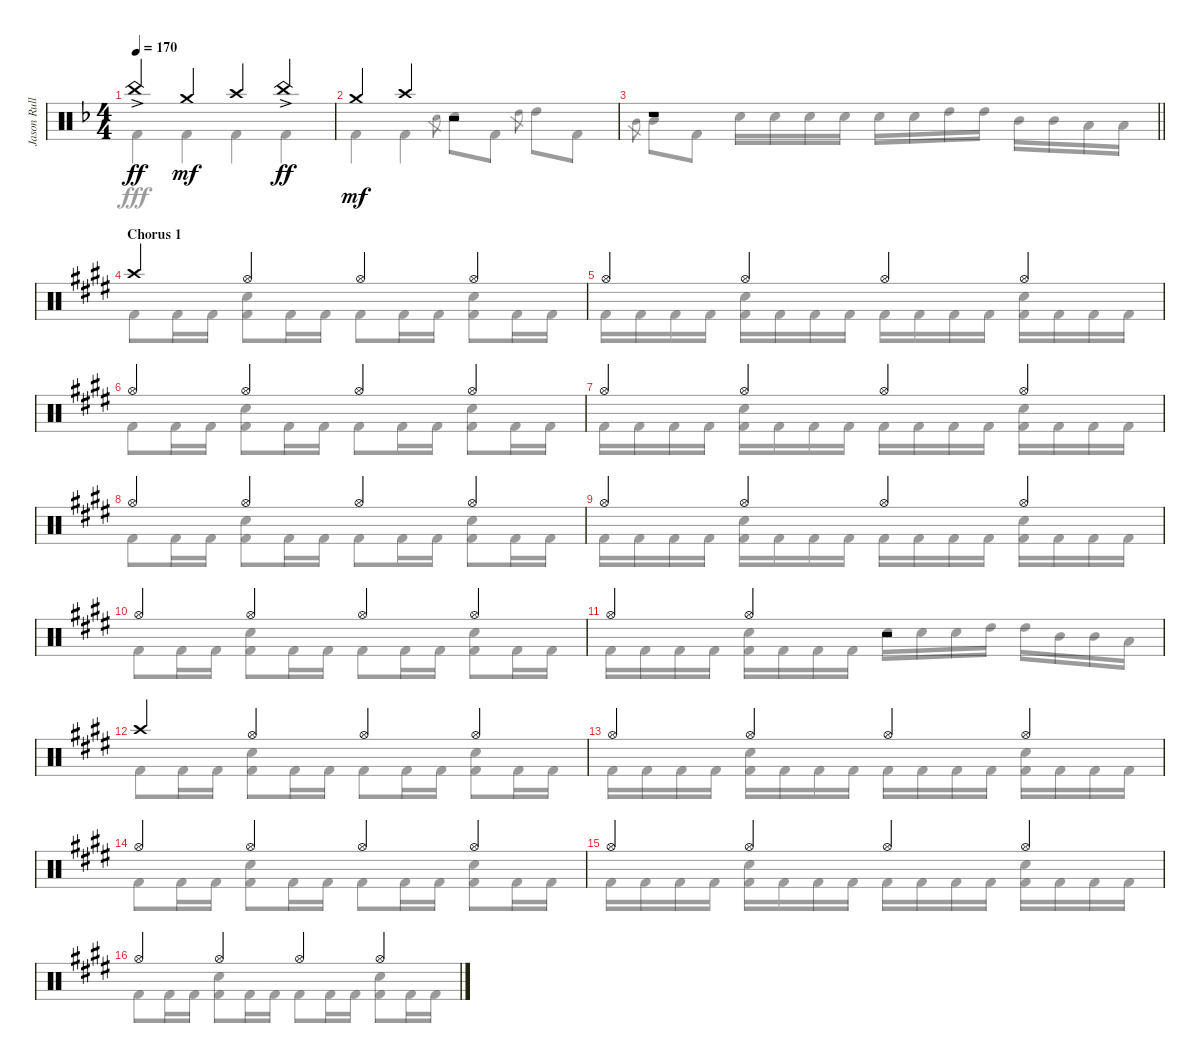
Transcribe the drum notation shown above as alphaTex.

\track ("Jason Rullo Drums" "Jason Rull") {instrument percussion}
\staff {score}
\articulation defaults
\voice
\ts (4 4)
\tempo 170
\clef neutral
\ks dminor "China (hit)"{ac}.4{dy ff} "Crash medium (hit)".4{dy mf} "Crash high (hit)".4 "China (hit)"{ac}.4{dy ff}
|
"Crash medium (hit)".4{dy mf} "Crash high (hit)".4 r.2 |
\barLineRight lightlight
r.1 |
\section ("" "Chorus 1")
\ks c#minor "Crash high (hit)".4 "Hi-Hat (open)".4 "Hi-Hat (open)".4 "Hi-Hat (open)".4
|
"Hi-Hat (open)".4 "Hi-Hat (open)".4 "Hi-Hat (open)".4 "Hi-Hat (open)".4 |
"Hi-Hat (open)".4 "Hi-Hat (open)".4 "Hi-Hat (open)".4 "Hi-Hat (open)".4 |
"Hi-Hat (open)".4 "Hi-Hat (open)".4 "Hi-Hat (open)".4 "Hi-Hat (open)".4 |
"Hi-Hat (open)".4 "Hi-Hat (open)".4 "Hi-Hat (open)".4 "Hi-Hat (open)".4 |
"Hi-Hat (open)".4 "Hi-Hat (open)".4 "Hi-Hat (open)".4 "Hi-Hat (open)".4 |
"Hi-Hat (open)".4 "Hi-Hat (open)".4 "Hi-Hat (open)".4 "Hi-Hat (open)".4 |
"Hi-Hat (open)".4 "Hi-Hat (open)".4 r.2 |
"Crash high (hit)".4 "Hi-Hat (open)".4 "Hi-Hat (open)".4 "Hi-Hat (open)".4 |
"Hi-Hat (open)".4 "Hi-Hat (open)".4 "Hi-Hat (open)".4 "Hi-Hat (open)".4 |
"Hi-Hat (open)".4 "Hi-Hat (open)".4 "Hi-Hat (open)".4 "Hi-Hat (open)".4 |
"Hi-Hat (open)".4 "Hi-Hat (open)".4 "Hi-Hat (open)".4 "Hi-Hat (open)".4 |
"Hi-Hat (open)".4 "Hi-Hat (open)".4 "Hi-Hat (open)".4 "Hi-Hat (open)".4
\voice
\clef neutral
\ottava regular
\simile none
\ks dminor "Kick (hit) 2".4{dy fff} "Kick (hit) 2".4 "Kick (hit) 2".4 "Kick (hit) 2".4
|
"Kick (hit) 2".4 "Kick (hit) 2".4 "Electric Snare (hit)".8{gr} "Electric Snare (hit)".8 "Kick (hit) 2".8 "High Tom (hit)".8{gr} "High Tom (hit)".8 "Kick (hit) 2".8 |
\barLineRight lightlight "Mid Tom (hit)".8{gr} "Mid Tom (hit)".8 "Kick (hit) 2".8 "Electric Snare (hit)".16 "Electric Snare (hit)".16 "Electric Snare (hit)".16 "Electric Snare (hit)".16 "Electric Snare (hit)".16 "Electric Snare (hit)".16 "High Tom (hit)".16 "High Tom (hit)".16 "Mid Tom (hit)".16 "Mid Tom (hit)".16 "Low Tom (hit)".16 "Low Tom (hit)".16
|
\ks c#minor "Kick (hit) 2".8 "Kick (hit) 2".16 "Kick (hit) 2".16
("Electric Snare (hit)" "Kick (hit) 2").8 "Kick (hit) 2".16 "Kick (hit) 2".16 "Kick (hit) 2".8 "Kick (hit) 2".16 "Kick (hit) 2".16 ("Electric Snare (hit)" "Kick (hit) 2").8 "Kick (hit) 2".16 "Kick (hit) 2".16 |
"Kick (hit) 2".16 "Kick (hit) 2".16 "Kick (hit) 2".16 "Kick (hit) 2".16 ("Electric Snare (hit)" "Kick (hit) 2").16 "Kick (hit) 2".16 "Kick (hit) 2".16 "Kick (hit) 2".16 "Kick (hit) 2".16 "Kick (hit) 2".16 "Kick (hit) 2".16 "Kick (hit) 2".16 ("Electric Snare (hit)" "Kick (hit) 2").16 "Kick (hit) 2".16 "Kick (hit) 2".16 "Kick (hit) 2".16 |
"Kick (hit) 2".8 "Kick (hit) 2".16 "Kick (hit) 2".16 ("Electric Snare (hit)" "Kick (hit) 2").8 "Kick (hit) 2".16 "Kick (hit) 2".16 "Kick (hit) 2".8 "Kick (hit) 2".16 "Kick (hit) 2".16 ("Electric Snare (hit)" "Kick (hit) 2").8 "Kick (hit) 2".16 "Kick (hit) 2".16 |
"Kick (hit) 2".16 "Kick (hit) 2".16 "Kick (hit) 2".16 "Kick (hit) 2".16 ("Electric Snare (hit)" "Kick (hit) 2").16 "Kick (hit) 2".16 "Kick (hit) 2".16 "Kick (hit) 2".16 "Kick (hit) 2".16 "Kick (hit) 2".16 "Kick (hit) 2".16 "Kick (hit) 2".16 ("Electric Snare (hit)" "Kick (hit) 2").16 "Kick (hit) 2".16 "Kick (hit) 2".16 "Kick (hit) 2".16 |
"Kick (hit) 2".8 "Kick (hit) 2".16 "Kick (hit) 2".16 ("Electric Snare (hit)" "Kick (hit) 2").8 "Kick (hit) 2".16 "Kick (hit) 2".16 "Kick (hit) 2".8 "Kick (hit) 2".16 "Kick (hit) 2".16 ("Electric Snare (hit)" "Kick (hit) 2").8 "Kick (hit) 2".16 "Kick (hit) 2".16 |
"Kick (hit) 2".16 "Kick (hit) 2".16 "Kick (hit) 2".16 "Kick (hit) 2".16 ("Electric Snare (hit)" "Kick (hit) 2").16 "Kick (hit) 2".16 "Kick (hit) 2".16 "Kick (hit) 2".16 "Kick (hit) 2".16 "Kick (hit) 2".16 "Kick (hit) 2".16 "Kick (hit) 2".16 ("Electric Snare (hit)" "Kick (hit) 2").16 "Kick (hit) 2".16 "Kick (hit) 2".16 "Kick (hit) 2".16 |
"Kick (hit) 2".8 "Kick (hit) 2".16 "Kick (hit) 2".16 ("Electric Snare (hit)" "Kick (hit) 2").8 "Kick (hit) 2".16 "Kick (hit) 2".16 "Kick (hit) 2".8 "Kick (hit) 2".16 "Kick (hit) 2".16 ("Electric Snare (hit)" "Kick (hit) 2").8 "Kick (hit) 2".16 "Kick (hit) 2".16 |
"Kick (hit) 2".16 "Kick (hit) 2".16 "Kick (hit) 2".16 "Kick (hit) 2".16 ("Electric Snare (hit)" "Kick (hit) 2").16 "Kick (hit) 2".16 "Kick (hit) 2".16 "Kick (hit) 2".16 "Electric Snare (hit)".16 "Electric Snare (hit)".16 "Electric Snare (hit)".16 "High Tom (hit)".16 "High Tom (hit)".16 "Mid Tom (hit)".16 "Mid Tom (hit)".16 "Low Tom (hit)".16 |
"Kick (hit) 2".8 "Kick (hit) 2".16 "Kick (hit) 2".16 ("Electric Snare (hit)" "Kick (hit) 2").8 "Kick (hit) 2".16 "Kick (hit) 2".16 "Kick (hit) 2".8 "Kick (hit) 2".16 "Kick (hit) 2".16 ("Electric Snare (hit)" "Kick (hit) 2").8 "Kick (hit) 2".16 "Kick (hit) 2".16 |
"Kick (hit) 2".16 "Kick (hit) 2".16 "Kick (hit) 2".16 "Kick (hit) 2".16 ("Electric Snare (hit)" "Kick (hit) 2").16 "Kick (hit) 2".16 "Kick (hit) 2".16 "Kick (hit) 2".16 "Kick (hit) 2".16 "Kick (hit) 2".16 "Kick (hit) 2".16 "Kick (hit) 2".16 ("Electric Snare (hit)" "Kick (hit) 2").16 "Kick (hit) 2".16 "Kick (hit) 2".16 "Kick (hit) 2".16 |
"Kick (hit) 2".8 "Kick (hit) 2".16 "Kick (hit) 2".16 ("Electric Snare (hit)" "Kick (hit) 2").8 "Kick (hit) 2".16 "Kick (hit) 2".16 "Kick (hit) 2".8 "Kick (hit) 2".16 "Kick (hit) 2".16 ("Electric Snare (hit)" "Kick (hit) 2").8 "Kick (hit) 2".16 "Kick (hit) 2".16 |
"Kick (hit) 2".16 "Kick (hit) 2".16 "Kick (hit) 2".16 "Kick (hit) 2".16 ("Electric Snare (hit)" "Kick (hit) 2").16 "Kick (hit) 2".16 "Kick (hit) 2".16 "Kick (hit) 2".16 "Kick (hit) 2".16 "Kick (hit) 2".16 "Kick (hit) 2".16 "Kick (hit) 2".16 ("Electric Snare (hit)" "Kick (hit) 2").16 "Kick (hit) 2".16 "Kick (hit) 2".16 "Kick (hit) 2".16 |
"Kick (hit) 2".8 "Kick (hit) 2".16 "Kick (hit) 2".16 ("Electric Snare (hit)" "Kick (hit) 2").8 "Kick (hit) 2".16 "Kick (hit) 2".16 "Kick (hit) 2".8 "Kick (hit) 2".16 "Kick (hit) 2".16 ("Electric Snare (hit)" "Kick (hit) 2").8 "Kick (hit) 2".16 "Kick (hit) 2".16
